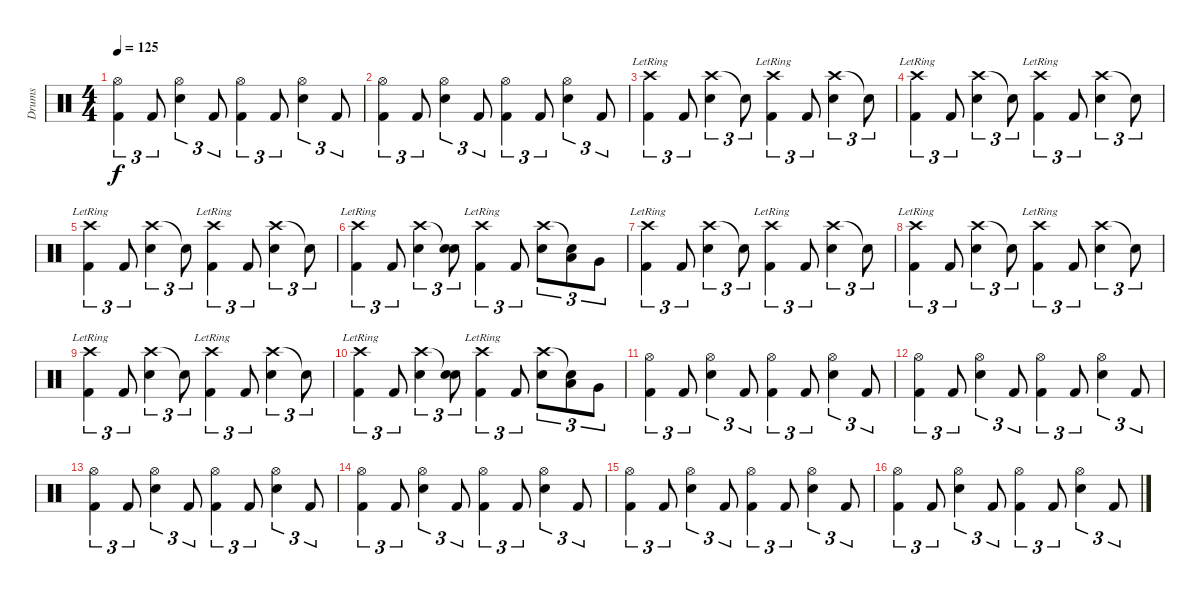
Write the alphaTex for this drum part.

\track ("Drums" "Drums") {instrument percussion}
\staff {score}
\articulation defaults
\ts (4 4)
\tempo 125
\clef neutral
\ks c
("Hi-Hat (open)" "Kick (hit) 2").4{tu (3 2) dy f} "Kick (hit) 2".8{tu (3 2)} ("Hi-Hat (open)" "Electric Snare (hit)").4{tu (3 2)} "Kick (hit) 2".8{tu (3 2)} ("Hi-Hat (open)" "Kick (hit) 2").4{tu (3 2)} "Kick (hit) 2".8{tu (3 2)} ("Hi-Hat (open)" "Electric Snare (hit)").4{tu (3 2)} "Kick (hit) 2".8{tu (3 2)} |
("Hi-Hat (open)" "Kick (hit) 2").4{tu (3 2)} "Kick (hit) 2".8{tu (3 2)} ("Hi-Hat (open)" "Electric Snare (hit)").4{tu (3 2)} "Kick (hit) 2".8{tu (3 2)} ("Hi-Hat (open)" "Kick (hit) 2").4{tu (3 2)} "Kick (hit) 2".8{tu (3 2)} ("Hi-Hat (open)" "Electric Snare (hit)").4{tu (3 2)} "Kick (hit) 2".8{tu (3 2)} |
("Crash high (hit)"{lr} "Kick (hit) 2").4{tu (3 2)} "Kick (hit) 2".8{tu (3 2)} ("Crash high (hit)" "Electric Snare (hit)").4{tu (3 2)} "Snare (hit)"{t}.8{tu (3 2)} ("Crash high (hit)"{lr} "Kick (hit) 2").4{tu (3 2)} "Kick (hit) 2".8{tu (3 2)} ("Crash high (hit)" "Electric Snare (hit)").4{tu (3 2)} "Snare (hit)"{t}.8{tu (3 2)} |
("Crash high (hit)"{lr} "Kick (hit) 2").4{tu (3 2)} "Kick (hit) 2".8{tu (3 2)} ("Crash high (hit)" "Electric Snare (hit)").4{tu (3 2)} "Snare (hit)"{t}.8{tu (3 2)} ("Crash high (hit)"{lr} "Kick (hit) 2").4{tu (3 2)} "Kick (hit) 2".8{tu (3 2)} ("Crash high (hit)" "Electric Snare (hit)").4{tu (3 2)} "Snare (hit)"{t}.8{tu (3 2)} |
("Crash high (hit)"{lr} "Kick (hit) 2").4{tu (3 2)} "Kick (hit) 2".8{tu (3 2)} ("Crash high (hit)" "Electric Snare (hit)").4{tu (3 2)} "Snare (hit)"{t}.8{tu (3 2)} ("Crash high (hit)"{lr} "Kick (hit) 2").4{tu (3 2)} "Kick (hit) 2".8{tu (3 2)} ("Crash high (hit)" "Electric Snare (hit)").4{tu (3 2)} "Snare (hit)"{t}.8{tu (3 2)} |
("Crash high (hit)"{lr} "Kick (hit) 2").4{tu (3 2)} "Kick (hit) 2".8{tu (3 2)} ("Crash high (hit)" "Electric Snare (hit)").4{tu (3 2)} ("Snare (hit)"{t} "Electric Snare (hit)").8{tu (3 2)} ("Crash high (hit)"{lr} "Kick (hit) 2").4{tu (3 2)} "Kick (hit) 2".8{tu (3 2)} ("Crash high (hit)" "Electric Snare (hit)").8{tu (3 2)} ("Snare (hit)"{t} "Low Tom (hit)").8{tu (3 2)} "Very Low Tom (hit)".8{tu (3 2)} |
("Crash high (hit)"{lr} "Kick (hit) 2").4{tu (3 2)} "Kick (hit) 2".8{tu (3 2)} ("Crash high (hit)" "Electric Snare (hit)").4{tu (3 2)} "Snare (hit)"{t}.8{tu (3 2)} ("Crash high (hit)"{lr} "Kick (hit) 2").4{tu (3 2)} "Kick (hit) 2".8{tu (3 2)} ("Crash high (hit)" "Electric Snare (hit)").4{tu (3 2)} "Snare (hit)"{t}.8{tu (3 2)} |
("Crash high (hit)"{lr} "Kick (hit) 2").4{tu (3 2)} "Kick (hit) 2".8{tu (3 2)} ("Crash high (hit)" "Electric Snare (hit)").4{tu (3 2)} "Snare (hit)"{t}.8{tu (3 2)} ("Crash high (hit)"{lr} "Kick (hit) 2").4{tu (3 2)} "Kick (hit) 2".8{tu (3 2)} ("Crash high (hit)" "Electric Snare (hit)").4{tu (3 2)} "Snare (hit)"{t}.8{tu (3 2)} |
("Crash high (hit)"{lr} "Kick (hit) 2").4{tu (3 2)} "Kick (hit) 2".8{tu (3 2)} ("Crash high (hit)" "Electric Snare (hit)").4{tu (3 2)} "Snare (hit)"{t}.8{tu (3 2)} ("Crash high (hit)"{lr} "Kick (hit) 2").4{tu (3 2)} "Kick (hit) 2".8{tu (3 2)} ("Crash high (hit)" "Electric Snare (hit)").4{tu (3 2)} "Snare (hit)"{t}.8{tu (3 2)} |
("Crash high (hit)"{lr} "Kick (hit) 2").4{tu (3 2)} "Kick (hit) 2".8{tu (3 2)} ("Crash high (hit)" "Electric Snare (hit)").4{tu (3 2)} ("Snare (hit)"{t} "Electric Snare (hit)").8{tu (3 2)} ("Crash high (hit)"{lr} "Kick (hit) 2").4{tu (3 2)} "Kick (hit) 2".8{tu (3 2)} ("Crash high (hit)" "Electric Snare (hit)").8{tu (3 2)} ("Snare (hit)"{t} "Low Tom (hit)").8{tu (3 2)} "Very Low Tom (hit)".8{tu (3 2)} |
("Hi-Hat (open)" "Kick (hit) 2").4{tu (3 2)} "Kick (hit) 2".8{tu (3 2)} ("Hi-Hat (open)" "Electric Snare (hit)").4{tu (3 2)} "Kick (hit) 2".8{tu (3 2)} ("Hi-Hat (open)" "Kick (hit) 2").4{tu (3 2)} "Kick (hit) 2".8{tu (3 2)} ("Hi-Hat (open)" "Electric Snare (hit)").4{tu (3 2)} "Kick (hit) 2".8{tu (3 2)} |
("Hi-Hat (open)" "Kick (hit) 2").4{tu (3 2)} "Kick (hit) 2".8{tu (3 2)} ("Hi-Hat (open)" "Electric Snare (hit)").4{tu (3 2)} "Kick (hit) 2".8{tu (3 2)} ("Hi-Hat (open)" "Kick (hit) 2").4{tu (3 2)} "Kick (hit) 2".8{tu (3 2)} ("Hi-Hat (open)" "Electric Snare (hit)").4{tu (3 2)} "Kick (hit) 2".8{tu (3 2)} |
("Hi-Hat (open)" "Kick (hit) 2").4{tu (3 2)} "Kick (hit) 2".8{tu (3 2)} ("Hi-Hat (open)" "Electric Snare (hit)").4{tu (3 2)} "Kick (hit) 2".8{tu (3 2)} ("Hi-Hat (open)" "Kick (hit) 2").4{tu (3 2)} "Kick (hit) 2".8{tu (3 2)} ("Hi-Hat (open)" "Electric Snare (hit)").4{tu (3 2)} "Kick (hit) 2".8{tu (3 2)} |
("Hi-Hat (open)" "Kick (hit) 2").4{tu (3 2)} "Kick (hit) 2".8{tu (3 2)} ("Hi-Hat (open)" "Electric Snare (hit)").4{tu (3 2)} "Kick (hit) 2".8{tu (3 2)} ("Hi-Hat (open)" "Kick (hit) 2").4{tu (3 2)} "Kick (hit) 2".8{tu (3 2)} ("Hi-Hat (open)" "Electric Snare (hit)").4{tu (3 2)} "Kick (hit) 2".8{tu (3 2)} |
("Hi-Hat (open)" "Kick (hit) 2").4{tu (3 2)} "Kick (hit) 2".8{tu (3 2)} ("Hi-Hat (open)" "Electric Snare (hit)").4{tu (3 2)} "Kick (hit) 2".8{tu (3 2)} ("Hi-Hat (open)" "Kick (hit) 2").4{tu (3 2)} "Kick (hit) 2".8{tu (3 2)} ("Hi-Hat (open)" "Electric Snare (hit)").4{tu (3 2)} "Kick (hit) 2".8{tu (3 2)} |
("Hi-Hat (open)" "Kick (hit) 2").4{tu (3 2)} "Kick (hit) 2".8{tu (3 2)} ("Hi-Hat (open)" "Electric Snare (hit)").4{tu (3 2)} "Kick (hit) 2".8{tu (3 2)} ("Hi-Hat (open)" "Kick (hit) 2").4{tu (3 2)} "Kick (hit) 2".8{tu (3 2)} ("Hi-Hat (open)" "Electric Snare (hit)").4{tu (3 2)} "Kick (hit) 2".8{tu (3 2)}
